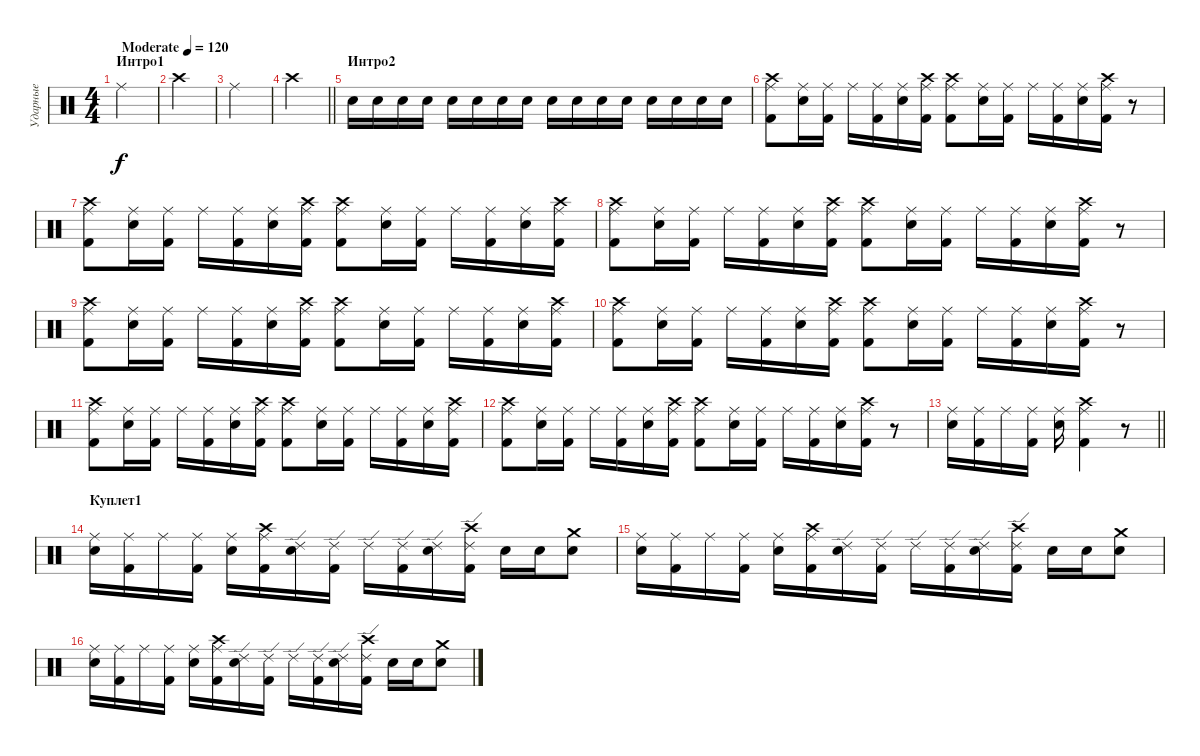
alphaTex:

\track ("Ударные" "Ударные") {instrument percussion}
\staff {score}
\articulation defaults
\ts (4 4)
\section ("" "Интро1")
\tempo (120 "Moderate")
\clef neutral
\ks c "Ride (middle)".4{dy f}
|
"Crash high (hit)".4 |
"Ride (middle)".4 |
\barLineRight lightlight "Crash high (hit)".4
|
\section ("" "Интро2")
"Snare (hit) 2".16 "Snare (hit) 2".16 "Snare (hit) 2".16 "Snare (hit) 2".16 "Snare (hit) 2".16 "Snare (hit) 2".16 "Snare (hit) 2".16 "Snare (hit) 2".16 "Electric Snare (hit)".16 "Electric Snare (hit)".16 "Electric Snare (hit)".16 "Electric Snare (hit)".16 "Electric Snare (hit)".16 "Electric Snare (hit)".16 "Electric Snare (hit)".16 "Electric Snare (hit)".16 |
("Crash high (hit)" "Ride (middle)" "Kick (hit) 2").8 ("Ride (middle)" "Electric Snare (hit)").16 ("Ride (middle)" "Kick (hit) 2").16 "Ride (middle)".16 ("Ride (middle)" "Kick (hit) 2").16 ("Ride (middle)" "Electric Snare (hit)").16 ("Crash high (hit)" "Ride (middle)" "Kick (hit) 2").16 ("Crash high (hit)" "Ride (middle)" "Kick (hit) 2").8 ("Ride (middle)" "Electric Snare (hit)").16 ("Ride (middle)" "Kick (hit) 2").16 "Ride (middle)".16 ("Ride (middle)" "Kick (hit) 2").16 ("Ride (middle)" "Electric Snare (hit)").16 ("Crash high (hit)" "Ride (middle)" "Kick (hit) 2").16 r.8 |
("Crash high (hit)" "Ride (middle)" "Kick (hit) 2").8 ("Ride (middle)" "Electric Snare (hit)").16 ("Ride (middle)" "Kick (hit) 2").16 "Ride (middle)".16 ("Ride (middle)" "Kick (hit) 2").16 ("Ride (middle)" "Electric Snare (hit)").16 ("Crash high (hit)" "Ride (middle)" "Kick (hit) 2").16 ("Crash high (hit)" "Ride (middle)" "Kick (hit) 2").8 ("Ride (middle)" "Electric Snare (hit)").16 ("Ride (middle)" "Kick (hit) 2").16 "Ride (middle)".16 ("Ride (middle)" "Kick (hit) 2").16 ("Ride (middle)" "Electric Snare (hit)").16 ("Crash high (hit)" "Ride (middle)" "Kick (hit) 2").16 |
("Crash high (hit)" "Ride (middle)" "Kick (hit) 2").8 ("Ride (middle)" "Electric Snare (hit)").16 ("Ride (middle)" "Kick (hit) 2").16 "Ride (middle)".16 ("Ride (middle)" "Kick (hit) 2").16 ("Ride (middle)" "Electric Snare (hit)").16 ("Crash high (hit)" "Ride (middle)" "Kick (hit) 2").16 ("Crash high (hit)" "Ride (middle)" "Kick (hit) 2").8 ("Ride (middle)" "Electric Snare (hit)").16 ("Ride (middle)" "Kick (hit) 2").16 "Ride (middle)".16 ("Ride (middle)" "Kick (hit) 2").16 ("Ride (middle)" "Electric Snare (hit)").16 ("Crash high (hit)" "Ride (middle)" "Kick (hit) 2").16 r.8 |
("Crash high (hit)" "Ride (middle)" "Kick (hit) 2").8 ("Ride (middle)" "Electric Snare (hit)").16 ("Ride (middle)" "Kick (hit) 2").16 "Ride (middle)".16 ("Ride (middle)" "Kick (hit) 2").16 ("Ride (middle)" "Electric Snare (hit)").16 ("Crash high (hit)" "Ride (middle)" "Kick (hit) 2").16 ("Crash high (hit)" "Ride (middle)" "Kick (hit) 2").8 ("Ride (middle)" "Electric Snare (hit)").16 ("Ride (middle)" "Kick (hit) 2").16 "Ride (middle)".16 ("Ride (middle)" "Kick (hit) 2").16 ("Ride (middle)" "Electric Snare (hit)").16 ("Crash high (hit)" "Ride (middle)" "Kick (hit) 2").16 |
("Crash high (hit)" "Ride (middle)" "Kick (hit) 2").8 ("Ride (middle)" "Electric Snare (hit)").16 ("Ride (middle)" "Kick (hit) 2").16 "Ride (middle)".16 ("Ride (middle)" "Kick (hit) 2").16 ("Ride (middle)" "Electric Snare (hit)").16 ("Crash high (hit)" "Ride (middle)" "Kick (hit) 2").16 ("Crash high (hit)" "Ride (middle)" "Kick (hit) 2").8 ("Ride (middle)" "Electric Snare (hit)").16 ("Ride (middle)" "Kick (hit) 2").16 "Ride (middle)".16 ("Ride (middle)" "Kick (hit) 2").16 ("Ride (middle)" "Electric Snare (hit)").16 ("Crash high (hit)" "Ride (middle)" "Kick (hit) 2").16 r.8 |
("Crash high (hit)" "Ride (middle)" "Kick (hit) 2").8 ("Ride (middle)" "Electric Snare (hit)").16 ("Ride (middle)" "Kick (hit) 2").16 "Ride (middle)".16 ("Ride (middle)" "Kick (hit) 2").16 ("Ride (middle)" "Electric Snare (hit)").16 ("Crash high (hit)" "Ride (middle)" "Kick (hit) 2").16 ("Crash high (hit)" "Ride (middle)" "Kick (hit) 2").8 ("Ride (middle)" "Electric Snare (hit)").16 ("Ride (middle)" "Kick (hit) 2").16 "Ride (middle)".16 ("Ride (middle)" "Kick (hit) 2").16 ("Ride (middle)" "Electric Snare (hit)").16 ("Crash high (hit)" "Ride (middle)" "Kick (hit) 2").16 |
("Crash high (hit)" "Ride (middle)" "Kick (hit) 2").8 ("Ride (middle)" "Electric Snare (hit)").16 ("Ride (middle)" "Kick (hit) 2").16 "Ride (middle)".16 ("Ride (middle)" "Kick (hit) 2").16 ("Ride (middle)" "Electric Snare (hit)").16 ("Crash high (hit)" "Ride (middle)" "Kick (hit) 2").16 ("Crash high (hit)" "Ride (middle)" "Kick (hit) 2").8 ("Ride (middle)" "Electric Snare (hit)").16 ("Ride (middle)" "Kick (hit) 2").16 "Ride (middle)".16 ("Ride (middle)" "Kick (hit) 2").16 ("Ride (middle)" "Electric Snare (hit)").16 ("Crash high (hit)" "Ride (middle)" "Kick (hit) 2").16 r.8 |
\barLineRight lightlight
("Ride (middle)" "Electric Snare (hit)").16 ("Ride (middle)" "Kick (hit) 2").16 "Ride (middle)".16 ("Ride (middle)" "Kick (hit) 2").16 ("Ride (middle)" "Electric Snare (hit)").16 ("Crash high (hit)" "Ride (middle)" "Kick (hit) 2").4 r.8 |
\section ("" "Куплет1")
("Ride (middle)" "Electric Snare (hit)").16 ("Ride (middle)" "Kick (hit) 2").16 "Ride (middle)".16 ("Ride (middle)" "Kick (hit) 2").16 ("Ride (middle)" "Electric Snare (hit)").16 ("Crash high (hit)" "Ride (middle)" "Kick (hit) 2").16 ("Ride (edge) 2" "Electric Snare (hit)").16 ("Ride (edge) 2" "Kick (hit) 2").16 "Ride (edge) 2".16 ("Ride (edge) 2" "Kick (hit) 2").16 ("Ride (edge) 2" "Electric Snare (hit)").16 ("Crash high (hit)" "Ride (edge) 2" "Kick (hit) 2").16 "Snare (hit) 2".16 "Electric Snare (hit)".16 ("Electric Snare (hit)" "Crash medium (hit)").8 |
("Ride (middle)" "Electric Snare (hit)").16 ("Ride (middle)" "Kick (hit) 2").16 "Ride (middle)".16 ("Ride (middle)" "Kick (hit) 2").16 ("Ride (middle)" "Electric Snare (hit)").16 ("Crash high (hit)" "Ride (middle)" "Kick (hit) 2").16 ("Ride (edge) 2" "Electric Snare (hit)").16 ("Ride (edge) 2" "Kick (hit) 2").16 "Ride (edge) 2".16 ("Ride (edge) 2" "Kick (hit) 2").16 ("Ride (edge) 2" "Electric Snare (hit)").16 ("Crash high (hit)" "Ride (edge) 2" "Kick (hit) 2").16 "Snare (hit) 2".16 "Electric Snare (hit)".16 ("Electric Snare (hit)" "Crash medium (hit)").8 |
("Ride (middle)" "Electric Snare (hit)").16 ("Ride (middle)" "Kick (hit) 2").16 "Ride (middle)".16 ("Ride (middle)" "Kick (hit) 2").16 ("Ride (middle)" "Electric Snare (hit)").16 ("Crash high (hit)" "Ride (middle)" "Kick (hit) 2").16 ("Ride (edge) 2" "Electric Snare (hit)").16 ("Ride (edge) 2" "Kick (hit) 2").16 "Ride (edge) 2".16 ("Ride (edge) 2" "Kick (hit) 2").16 ("Ride (edge) 2" "Electric Snare (hit)").16 ("Crash high (hit)" "Ride (edge) 2" "Kick (hit) 2").16 "Snare (hit) 2".16 "Electric Snare (hit)".16 ("Electric Snare (hit)" "Crash medium (hit)").8
